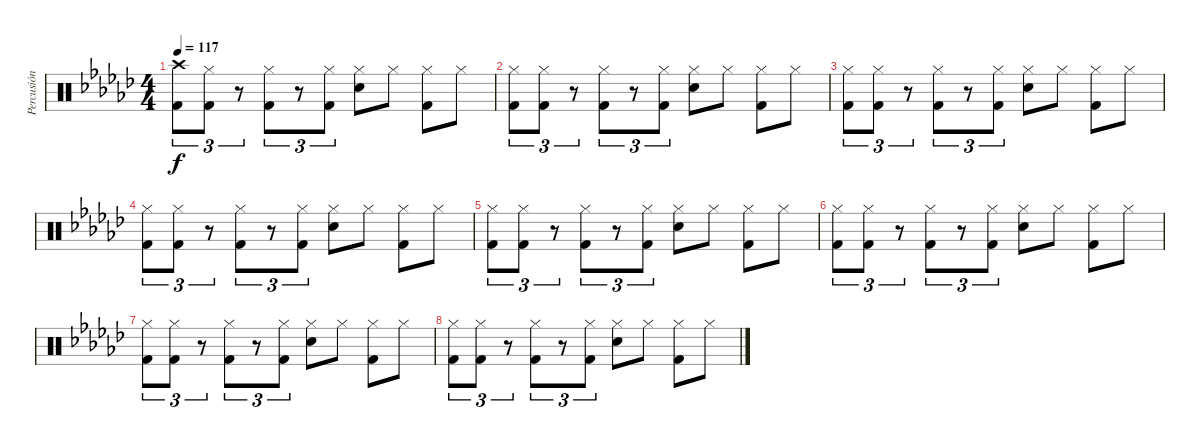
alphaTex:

\track ("Percusión" "Percusión") {instrument percussion}
\staff {score}
\articulation defaults
\ts (4 4)
\tempo 117
\clef neutral
\ks ebminor
("Kick (hit) 2" "Crash high (hit)").8{tu (3 2) dy f} ("Kick (hit) 2" "Hi-Hat (closed)").8{tu (3 2)} r.8{tu (3 2)} ("Kick (hit) 2" "Hi-Hat (closed)").8{tu (3 2)} r.8{tu (3 2)} ("Kick (hit) 2" "Hi-Hat (closed)").8{tu (3 2)} ("Electric Snare (hit)" "Hi-Hat (closed)").8 "Hi-Hat (closed)".8 ("Kick (hit) 2" "Hi-Hat (closed)").8 "Hi-Hat (closed)".8 |
("Kick (hit) 2" "Hi-Hat (closed)").8{tu (3 2)} ("Kick (hit) 2" "Hi-Hat (closed)").8{tu (3 2)} r.8{tu (3 2)} ("Kick (hit) 2" "Hi-Hat (closed)").8{tu (3 2)} r.8{tu (3 2)} ("Kick (hit) 2" "Hi-Hat (closed)").8{tu (3 2)} ("Electric Snare (hit)" "Hi-Hat (closed)").8 "Hi-Hat (closed)".8 ("Kick (hit) 2" "Hi-Hat (closed)").8 "Hi-Hat (closed)".8 |
("Kick (hit) 2" "Hi-Hat (closed)").8{tu (3 2)} ("Kick (hit) 2" "Hi-Hat (closed)").8{tu (3 2)} r.8{tu (3 2)} ("Kick (hit) 2" "Hi-Hat (closed)").8{tu (3 2)} r.8{tu (3 2)} ("Kick (hit) 2" "Hi-Hat (closed)").8{tu (3 2)} ("Electric Snare (hit)" "Hi-Hat (closed)").8 "Hi-Hat (closed)".8 ("Kick (hit) 2" "Hi-Hat (closed)").8 "Hi-Hat (closed)".8 |
("Kick (hit) 2" "Hi-Hat (closed)").8{tu (3 2)} ("Kick (hit) 2" "Hi-Hat (closed)").8{tu (3 2)} r.8{tu (3 2)} ("Kick (hit) 2" "Hi-Hat (closed)").8{tu (3 2)} r.8{tu (3 2)} ("Kick (hit) 2" "Hi-Hat (closed)").8{tu (3 2)} ("Electric Snare (hit)" "Hi-Hat (closed)").8 "Hi-Hat (closed)".8 ("Kick (hit) 2" "Hi-Hat (closed)").8 "Hi-Hat (closed)".8 |
("Kick (hit) 2" "Hi-Hat (closed)").8{tu (3 2)} ("Kick (hit) 2" "Hi-Hat (closed)").8{tu (3 2)} r.8{tu (3 2)} ("Kick (hit) 2" "Hi-Hat (closed)").8{tu (3 2)} r.8{tu (3 2)} ("Kick (hit) 2" "Hi-Hat (closed)").8{tu (3 2)} ("Electric Snare (hit)" "Hi-Hat (closed)").8 "Hi-Hat (closed)".8 ("Kick (hit) 2" "Hi-Hat (closed)").8 "Hi-Hat (closed)".8 |
("Kick (hit) 2" "Hi-Hat (closed)").8{tu (3 2)} ("Kick (hit) 2" "Hi-Hat (closed)").8{tu (3 2)} r.8{tu (3 2)} ("Kick (hit) 2" "Hi-Hat (closed)").8{tu (3 2)} r.8{tu (3 2)} ("Kick (hit) 2" "Hi-Hat (closed)").8{tu (3 2)} ("Electric Snare (hit)" "Hi-Hat (closed)").8 "Hi-Hat (closed)".8 ("Kick (hit) 2" "Hi-Hat (closed)").8 "Hi-Hat (closed)".8 |
("Kick (hit) 2" "Hi-Hat (closed)").8{tu (3 2)} ("Kick (hit) 2" "Hi-Hat (closed)").8{tu (3 2)} r.8{tu (3 2)} ("Kick (hit) 2" "Hi-Hat (closed)").8{tu (3 2)} r.8{tu (3 2)} ("Kick (hit) 2" "Hi-Hat (closed)").8{tu (3 2)} ("Electric Snare (hit)" "Hi-Hat (closed)").8 "Hi-Hat (closed)".8 ("Kick (hit) 2" "Hi-Hat (closed)").8 "Hi-Hat (closed)".8 |
("Kick (hit) 2" "Hi-Hat (closed)").8{tu (3 2)} ("Kick (hit) 2" "Hi-Hat (closed)").8{tu (3 2)} r.8{tu (3 2)} ("Kick (hit) 2" "Hi-Hat (closed)").8{tu (3 2)} r.8{tu (3 2)} ("Kick (hit) 2" "Hi-Hat (closed)").8{tu (3 2)} ("Electric Snare (hit)" "Hi-Hat (closed)").8 "Hi-Hat (closed)".8 ("Kick (hit) 2" "Hi-Hat (closed)").8 "Hi-Hat (closed)".8
